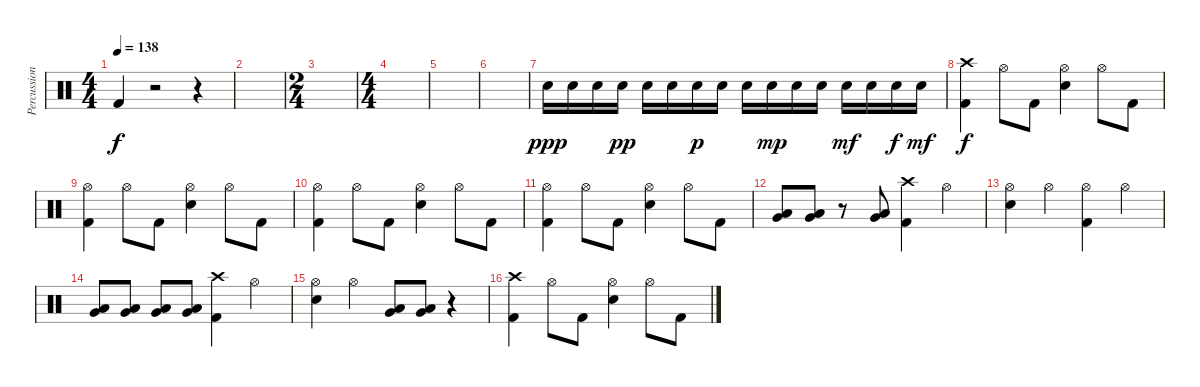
\track ("Percussion" "Percussion") {instrument percussion}
\staff {score}
\articulation defaults
\ts (4 4)
\tempo 138
\clef neutral
\ks c "Kick (hit) 2".4{dy f}
r.2 r.4 |
|
\ts (2 4)
|
\ts (4 4)
|
|
|
"Electric Snare (hit)".16{dy ppp} "Electric Snare (hit)".16 "Electric Snare (hit)".16 "Electric Snare (hit)".16{dy pp} "Electric Snare (hit)".16 "Electric Snare (hit)".16 "Electric Snare (hit)".16{dy p} "Electric Snare (hit)".16 "Electric Snare (hit)".16 "Electric Snare (hit)".16{dy mp} "Electric Snare (hit)".16 "Electric Snare (hit)".16 "Electric Snare (hit)".16{dy mf} "Electric Snare (hit)".16 "Electric Snare (hit)".16{dy f} "Electric Snare (hit)".16{dy mf} |
("Crash high (hit)" "Kick (hit) 2").4{dy f} "Hi-Hat (open)".8 "Kick (hit) 2".8 ("Hi-Hat (open)" "Electric Snare (hit)").4 "Hi-Hat (open)".8 "Kick (hit) 2".8 |
("Hi-Hat (open)" "Kick (hit) 2").4 "Hi-Hat (open)".8 "Kick (hit) 2".8 ("Hi-Hat (open)" "Electric Snare (hit)").4 "Hi-Hat (open)".8 "Kick (hit) 2".8 |
("Hi-Hat (open)" "Kick (hit) 2").4 "Hi-Hat (open)".8 "Kick (hit) 2".8 ("Hi-Hat (open)" "Electric Snare (hit)").4 "Hi-Hat (open)".8 "Kick (hit) 2".8 |
("Hi-Hat (open)" "Kick (hit) 2").4 "Hi-Hat (open)".8 "Kick (hit) 2".8 ("Hi-Hat (open)" "Electric Snare (hit)").4 "Hi-Hat (open)".8 "Kick (hit) 2".8 |
("Very Low Tom (hit)" "Low Tom (hit)").8 ("Very Low Tom (hit)" "Low Tom (hit)").8 r.8 ("Very Low Tom (hit)" "Low Tom (hit)").8 ("Crash high (hit)" "Kick (hit) 2").4 "Hi-Hat (open)".4 |
("Hi-Hat (open)" "Electric Snare (hit)").4 "Hi-Hat (open)".4 ("Hi-Hat (open)" "Kick (hit) 2").4 "Hi-Hat (open)".4 |
("Very Low Tom (hit)" "Low Tom (hit)").8 ("Very Low Tom (hit)" "Low Tom (hit)").8 ("Very Low Tom (hit)" "Low Tom (hit)").8 ("Very Low Tom (hit)" "Low Tom (hit)").8 ("Crash high (hit)" "Kick (hit) 2").4 "Hi-Hat (open)".4 |
("Hi-Hat (open)" "Electric Snare (hit)").4 "Hi-Hat (open)".4 ("Very Low Tom (hit)" "Low Tom (hit)").8 ("Very Low Tom (hit)" "Low Tom (hit)").8 r.4 |
("Crash high (hit)" "Kick (hit) 2").4 "Hi-Hat (open)".8 "Kick (hit) 2".8 ("Hi-Hat (open)" "Electric Snare (hit)").4 "Hi-Hat (open)".8 "Kick (hit) 2".8
